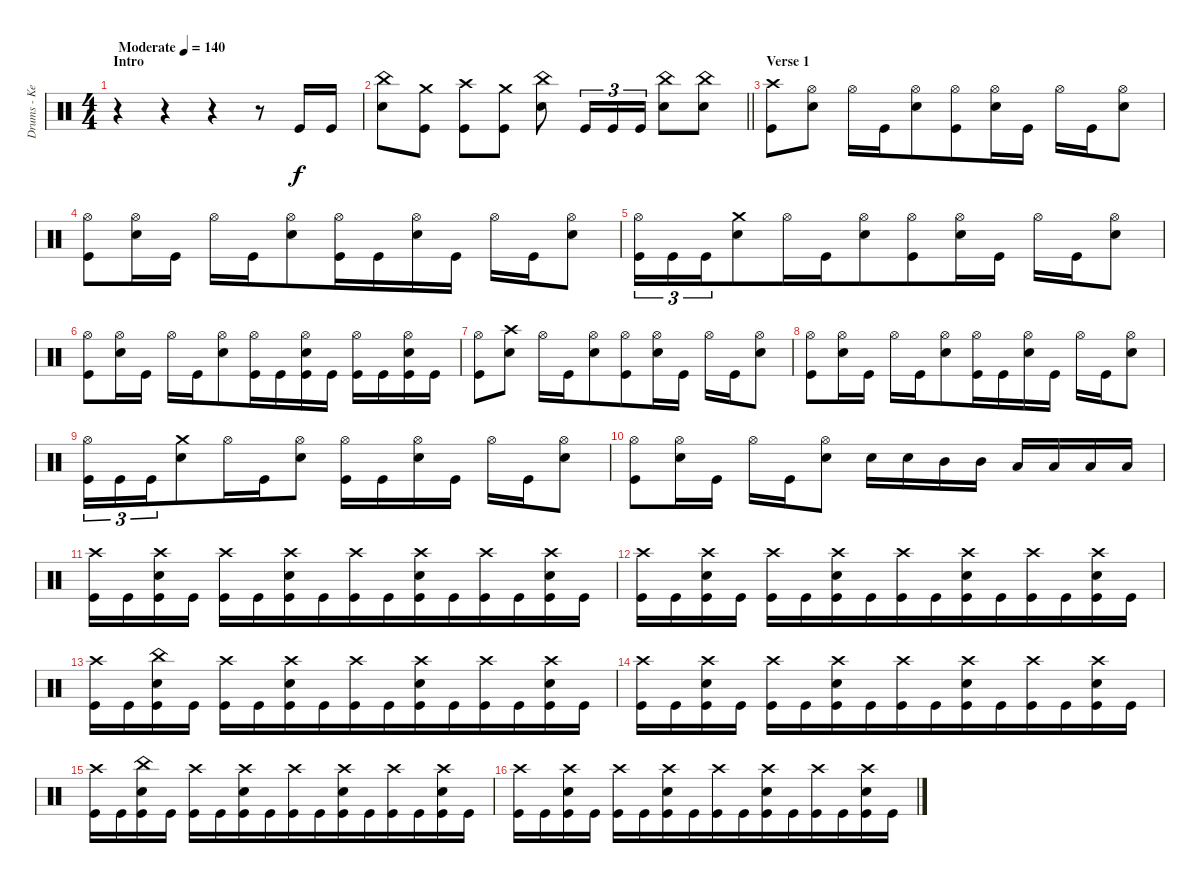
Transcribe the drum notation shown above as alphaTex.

\track ("Drums - Kevin Boutot" "Drums - Ke") {instrument percussion}
\staff {score}
\articulation defaults
\ts (4 4)
\section ("" "Intro")
\tempo (140 "Moderate")
\clef neutral
\ks c
r.4{dy f beam merge} r.4{beam merge} r.4 r.8 "Kick (hit)".16{beam merge} "Kick (hit)".16 |
\barLineRight lightlight
("China (hit)" "Electric Snare (hit)").8 ("Crash medium (hit)" "Kick (hit)").8 ("Crash high (hit)" "Kick (hit)").8{beam merge} ("Crash medium (hit)" "Kick (hit)").8 ("China (hit)" "Electric Snare (hit)").8 "Kick (hit)".16{tu (3 2) beam merge} "Kick (hit)".16{tu (3 2) beam merge} "Kick (hit)".16{tu (3 2)} ("China (hit)" "Electric Snare (hit)").8{beam merge} ("China (hit)" "Electric Snare (hit)").8 |
\section ("" "Verse 1")
("Crash high (hit)" "Kick (hit)").8{beam merge} ("Hi-Hat (open)" "Electric Snare (hit)").8 "Hi-Hat (open)".16{beam merge} "Kick (hit)".16 ("Hi-Hat (open)" "Electric Snare (hit)").8{beam merge} ("Hi-Hat (open)" "Kick (hit)").8 ("Hi-Hat (open)" "Electric Snare (hit)").16{beam merge} "Kick (hit)".16 "Hi-Hat (open)".16 "Kick (hit)".16 ("Hi-Hat (open)" "Electric Snare (hit)").8 |
("Hi-Hat (open)" "Kick (hit)").8 ("Hi-Hat (open)" "Electric Snare (hit)").16{beam merge} "Kick (hit)".16 "Hi-Hat (open)".16 "Kick (hit)".16 ("Hi-Hat (open)" "Electric Snare (hit)").8{beam merge} ("Hi-Hat (open)" "Kick (hit)").16 "Kick (hit)".16{beam merge} ("Hi-Hat (open)" "Electric Snare (hit)").16 "Kick (hit)".16 "Hi-Hat (open)".16 "Kick (hit)".16{beam merge} ("Hi-Hat (open)" "Electric Snare (hit)").8 |
("Hi-Hat (open)" "Kick (hit)").16{tu (3 2) beam merge} "Kick (hit)".16{tu (3 2)} "Kick (hit)".16{tu (3 2) beam merge} ("Crash medium (hit)" "Electric Snare (hit)").8{beam merge} "Hi-Hat (open)".16{beam merge} "Kick (hit)".16{beam merge} ("Hi-Hat (open)" "Electric Snare (hit)").8{beam merge} ("Hi-Hat (open)" "Kick (hit)").8 ("Hi-Hat (open)" "Electric Snare (hit)").16{beam merge} "Kick (hit)".16 "Hi-Hat (open)".16 "Kick (hit)".16 ("Hi-Hat (open)" "Electric Snare (hit)").8 |
("Hi-Hat (open)" "Kick (hit)").8 ("Hi-Hat (open)" "Electric Snare (hit)").16{beam merge} "Kick (hit)".16 "Hi-Hat (open)".16 "Kick (hit)".16 ("Hi-Hat (open)" "Electric Snare (hit)").8{beam merge} ("Hi-Hat (open)" "Kick (hit)").16 "Kick (hit)".16{beam merge} ("Hi-Hat (open)" "Electric Snare (hit)" "Kick (hit)").16 "Kick (hit)".16 ("Hi-Hat (open)" "Kick (hit)").16 "Kick (hit)".16{beam merge} ("Hi-Hat (open)" "Electric Snare (hit)" "Kick (hit)").16 "Kick (hit)".16 |
("Hi-Hat (open)" "Kick (hit)").8{beam merge} ("Crash high (hit)" "Electric Snare (hit)").8 "Hi-Hat (open)".16{beam merge} "Kick (hit)".16 ("Hi-Hat (open)" "Electric Snare (hit)").8{beam merge} ("Hi-Hat (open)" "Kick (hit)").8 ("Hi-Hat (open)" "Electric Snare (hit)").16{beam merge} "Kick (hit)".16 "Hi-Hat (open)".16 "Kick (hit)".16 ("Hi-Hat (open)" "Electric Snare (hit)").8 |
("Hi-Hat (open)" "Kick (hit)").8 ("Hi-Hat (open)" "Electric Snare (hit)").16{beam merge} "Kick (hit)".16 "Hi-Hat (open)".16 "Kick (hit)".16 ("Hi-Hat (open)" "Electric Snare (hit)").8{beam merge} ("Hi-Hat (open)" "Kick (hit)").16 "Kick (hit)".16{beam merge} ("Hi-Hat (open)" "Electric Snare (hit)").16 "Kick (hit)".16 "Hi-Hat (open)".16 "Kick (hit)".16{beam merge} ("Hi-Hat (open)" "Electric Snare (hit)").8 |
("Hi-Hat (open)" "Kick (hit)").16{tu (3 2) beam merge} "Kick (hit)".16{tu (3 2)} "Kick (hit)".16{tu (3 2) beam merge} ("Crash medium (hit)" "Electric Snare (hit)").8{beam merge} "Hi-Hat (open)".16{beam merge} "Kick (hit)".16{beam merge} ("Hi-Hat (open)" "Electric Snare (hit)").8 ("Hi-Hat (open)" "Kick (hit)").16{beam merge} "Kick (hit)".16 ("Hi-Hat (open)" "Electric Snare (hit)").16 "Kick (hit)".16 "Hi-Hat (open)".16 "Kick (hit)".16 ("Hi-Hat (open)" "Electric Snare (hit)").8 |
("Hi-Hat (open)" "Kick (hit)").8 ("Hi-Hat (open)" "Electric Snare (hit)").16{beam merge} "Kick (hit)".16 "Hi-Hat (open)".16 "Kick (hit)".16 ("Hi-Hat (open)" "Electric Snare (hit)").8 "Electric Snare (hit)".16 "Electric Snare (hit)".16 "Mid Tom (hit)".16 "Mid Tom (hit)".16 "Low Tom (hit)".16{beam merge} "Low Tom (hit)".16{beam merge} "Low Floor Tom (hit)".16{beam merge} "Low Floor Tom (hit)".16 |
("Crash high (hit)" "Kick (hit)").16 "Kick (hit)".16 ("Crash high (hit)" "Electric Snare (hit)" "Kick (hit)").16 "Kick (hit)".16 ("Crash high (hit)" "Kick (hit)").16 "Kick (hit)".16{beam merge} ("Crash high (hit)" "Electric Snare (hit)" "Kick (hit)").16 "Kick (hit)".16{beam merge} ("Crash high (hit)" "Kick (hit)").16 "Kick (hit)".16 ("Crash high (hit)" "Electric Snare (hit)" "Kick (hit)").16 "Kick (hit)".16{beam merge} ("Crash high (hit)" "Kick (hit)").16{beam merge} "Kick (hit)".16{beam merge} ("Crash high (hit)" "Electric Snare (hit)" "Kick (hit)").16{beam merge} "Kick (hit)".16 |
("Crash high (hit)" "Kick (hit)").16 "Kick (hit)".16 ("Crash high (hit)" "Electric Snare (hit)" "Kick (hit)").16 "Kick (hit)".16 ("Crash high (hit)" "Kick (hit)").16 "Kick (hit)".16{beam merge} ("Crash high (hit)" "Electric Snare (hit)" "Kick (hit)").16 "Kick (hit)".16{beam merge} ("Crash high (hit)" "Kick (hit)").16 "Kick (hit)".16 ("Crash high (hit)" "Electric Snare (hit)" "Kick (hit)").16 "Kick (hit)".16{beam merge} ("Crash high (hit)" "Kick (hit)").16{beam merge} "Kick (hit)".16{beam merge} ("Crash high (hit)" "Electric Snare (hit)" "Kick (hit)").16{beam merge} "Kick (hit)".16 |
("Crash high (hit)" "Kick (hit)").16 "Kick (hit)".16 ("China (hit)" "Electric Snare (hit)" "Kick (hit)").16 "Kick (hit)".16 ("Crash high (hit)" "Kick (hit)").16 "Kick (hit)".16{beam merge} ("Crash high (hit)" "Electric Snare (hit)" "Kick (hit)").16 "Kick (hit)".16{beam merge} ("Crash high (hit)" "Kick (hit)").16 "Kick (hit)".16 ("Crash high (hit)" "Electric Snare (hit)" "Kick (hit)").16 "Kick (hit)".16{beam merge} ("Crash high (hit)" "Kick (hit)").16{beam merge} "Kick (hit)".16{beam merge} ("Crash high (hit)" "Electric Snare (hit)" "Kick (hit)").16{beam merge} "Kick (hit)".16 |
("Crash high (hit)" "Kick (hit)").16 "Kick (hit)".16 ("Crash high (hit)" "Electric Snare (hit)" "Kick (hit)").16 "Kick (hit)".16 ("Crash high (hit)" "Kick (hit)").16 "Kick (hit)".16{beam merge} ("Crash high (hit)" "Electric Snare (hit)" "Kick (hit)").16 "Kick (hit)".16{beam merge} ("Crash high (hit)" "Kick (hit)").16 "Kick (hit)".16 ("Crash high (hit)" "Electric Snare (hit)" "Kick (hit)").16 "Kick (hit)".16{beam merge} ("Crash high (hit)" "Kick (hit)").16{beam merge} "Kick (hit)".16{beam merge} ("Crash high (hit)" "Electric Snare (hit)" "Kick (hit)").16{beam merge} "Kick (hit)".16 |
("Crash high (hit)" "Kick (hit)").16 "Kick (hit)".16 ("China (hit)" "Electric Snare (hit)" "Kick (hit)").16 "Kick (hit)".16 ("Crash high (hit)" "Kick (hit)").16 "Kick (hit)".16{beam merge} ("Crash high (hit)" "Electric Snare (hit)" "Kick (hit)").16 "Kick (hit)".16{beam merge} ("Crash high (hit)" "Kick (hit)").16 "Kick (hit)".16 ("Crash high (hit)" "Electric Snare (hit)" "Kick (hit)").16 "Kick (hit)".16{beam merge} ("Crash high (hit)" "Kick (hit)").16{beam merge} "Kick (hit)".16{beam merge} ("Crash high (hit)" "Electric Snare (hit)" "Kick (hit)").16{beam merge} "Kick (hit)".16 |
("Crash high (hit)" "Kick (hit)").16 "Kick (hit)".16 ("Crash high (hit)" "Electric Snare (hit)" "Kick (hit)").16 "Kick (hit)".16 ("Crash high (hit)" "Kick (hit)").16 "Kick (hit)".16{beam merge} ("Crash high (hit)" "Electric Snare (hit)" "Kick (hit)").16 "Kick (hit)".16{beam merge} ("Crash high (hit)" "Kick (hit)").16 "Kick (hit)".16 ("Crash high (hit)" "Electric Snare (hit)" "Kick (hit)").16 "Kick (hit)".16{beam merge} ("Crash high (hit)" "Kick (hit)").16{beam merge} "Kick (hit)".16{beam merge} ("Crash high (hit)" "Electric Snare (hit)" "Kick (hit)").16{beam merge} "Kick (hit)".16
